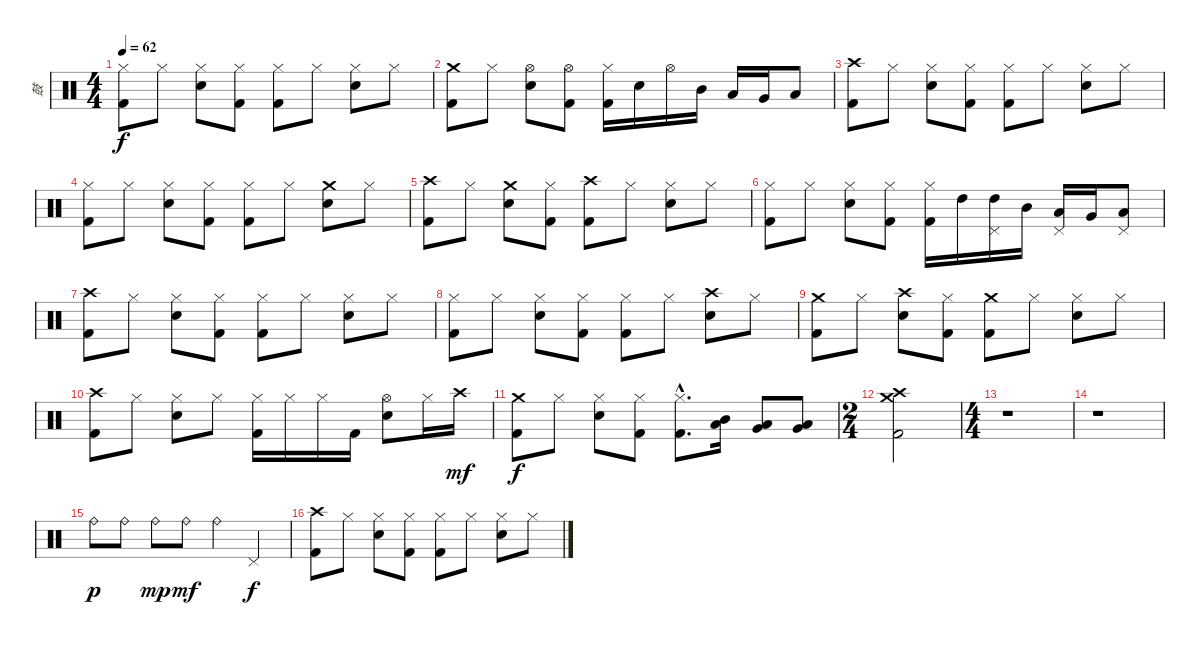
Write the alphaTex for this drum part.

\track ("鼓" "鼓") {instrument percussion}
\staff {score}
\articulation defaults
\ts (4 4)
\tempo 62
\clef neutral
\ks c
("Hi-Hat (closed)" "Kick (hit) 2").8{dy f} "Hi-Hat (closed)".8 ("Hi-Hat (closed)" "Snare (hit) 2").8 ("Hi-Hat (closed)" "Kick (hit) 2").8 ("Hi-Hat (closed)" "Kick (hit) 2").8 "Hi-Hat (closed)".8 ("Hi-Hat (closed)" "Snare (hit) 2").8 "Hi-Hat (closed)".8 |
("Crash medium (hit)" "Kick (hit) 2").8 "Hi-Hat (closed)".8 ("Hi-Hat (open)" "Snare (hit) 2").8 ("Hi-Hat (open)" "Kick (hit) 2").8 ("Hi-Hat (closed)" "Kick (hit) 2").16 "Snare (hit) 2".16 "Hi-Hat (open)".16 "Mid Tom (hit)".16 "Low Tom (hit)".16 "Very Low Tom (hit)".16 "Low Floor Tom (hit)".8 |
("Crash high (hit)" "Kick (hit) 2").8 "Hi-Hat (closed)".8 ("Hi-Hat (closed)" "Snare (hit) 2").8 ("Hi-Hat (closed)" "Kick (hit) 2").8 ("Hi-Hat (closed)" "Kick (hit) 2").8 "Hi-Hat (closed)".8 ("Hi-Hat (closed)" "Snare (hit) 2").8 "Hi-Hat (closed)".8 |
("Hi-Hat (closed)" "Kick (hit) 2").8 "Hi-Hat (closed)".8 ("Hi-Hat (closed)" "Snare (hit) 2").8 ("Hi-Hat (closed)" "Kick (hit) 2").8 ("Hi-Hat (closed)" "Kick (hit) 2").8 "Hi-Hat (closed)".8 ("Crash medium (hit)" "Snare (hit) 2").8 "Hi-Hat (closed)".8 |
("Crash high (hit)" "Kick (hit) 2").8 "Hi-Hat (closed)".8 ("Crash medium (hit)" "Snare (hit) 2").8 ("Hi-Hat (closed)" "Kick (hit) 2").8 ("Crash high (hit)" "Kick (hit) 2").8 "Hi-Hat (closed)".8 ("Hi-Hat (closed)" "Snare (hit) 2").8 "Hi-Hat (closed)".8 |
("Hi-Hat (closed)" "Kick (hit) 2").8 "Hi-Hat (closed)".8 ("Hi-Hat (closed)" "Snare (hit) 2").8 ("Hi-Hat (closed)" "Kick (hit) 2").8 ("Hi-Hat (closed)" "Kick (hit) 2").16 "High Tom (hit)".16 ("Pedal Hi-Hat (hit)" "High Tom (hit)").16 "Mid Tom (hit)".16 ("Pedal Hi-Hat (hit)" "Low Tom (hit)").16 "Very Low Tom (hit)".16 ("Pedal Hi-Hat (hit)" "Low Floor Tom (hit)").8 |
("Crash high (hit)" "Kick (hit) 2").8 "Hi-Hat (closed)".8 ("Hi-Hat (closed)" "Snare (hit) 2").8 ("Hi-Hat (closed)" "Kick (hit) 2").8 ("Hi-Hat (closed)" "Kick (hit) 2").8 "Hi-Hat (closed)".8 ("Hi-Hat (closed)" "Snare (hit) 2").8 "Hi-Hat (closed)".8 |
("Hi-Hat (closed)" "Kick (hit) 2").8 "Hi-Hat (closed)".8 ("Hi-Hat (closed)" "Snare (hit) 2").8 ("Hi-Hat (closed)" "Kick (hit) 2").8 ("Hi-Hat (closed)" "Kick (hit) 2").8 "Hi-Hat (closed)".8 ("Crash high (hit)" "Snare (hit) 2").8 "Hi-Hat (closed)".8 |
("Crash medium (hit)" "Kick (hit) 2").8 "Hi-Hat (closed)".8 ("Crash high (hit)" "Snare (hit) 2").8 ("Hi-Hat (closed)" "Kick (hit) 2").8 ("Crash medium (hit)" "Kick (hit) 2").8 "Hi-Hat (closed)".8 ("Hi-Hat (closed)" "Snare (hit) 2").8 "Hi-Hat (closed)".8 |
("Crash high (hit)" "Kick (hit) 2").8 "Hi-Hat (closed)".8 ("Hi-Hat (closed)" "Snare (hit) 2").8 "Hi-Hat (closed)".8 ("Hi-Hat (closed)" "Kick (hit) 2").16 "Hi-Hat (closed)".16 "Hi-Hat (closed)".16 "Kick (hit) 2".16 ("Hi-Hat (open)" "Snare (hit) 2").8 "Hi-Hat (closed)".16 "Crash high (hit)".16{dy mf} |
("Crash medium (hit)" "Kick (hit) 2").8{dy f} "Hi-Hat (closed)".8 ("Hi-Hat (closed)" "Snare (hit) 2").8 ("Hi-Hat (closed)" "Kick (hit) 2").8 ("Hi-Hat (closed)"{hac} "Kick (hit) 2"{hac}).8{d} ("Mid Tom (hit)" "Low Tom (hit)").16 ("Low Tom (hit)" "Very Low Tom (hit)").8 ("Very Low Tom (hit)" "Low Floor Tom (hit)").8 |
\ts (2 4)
("Crash high (hit)" "Crash medium (hit)" "Kick (hit) 2").2 |
\ts (4 4)
r.1 |
r.1 |
"Ride (bell)".8{dy p} "Ride (bell)".8 "Ride (bell)".8{dy mp} "Ride (bell)".8{dy mf} "Ride (bell)".4 "Pedal Hi-Hat (hit)".4{dy f} |
("Crash high (hit)" "Kick (hit) 2").8 "Hi-Hat (closed)".8 ("Hi-Hat (closed)" "Snare (hit) 2").8 ("Hi-Hat (closed)" "Kick (hit) 2").8 ("Hi-Hat (closed)" "Kick (hit) 2").8 "Hi-Hat (closed)".8 ("Hi-Hat (closed)" "Snare (hit) 2").8 "Hi-Hat (closed)".8
